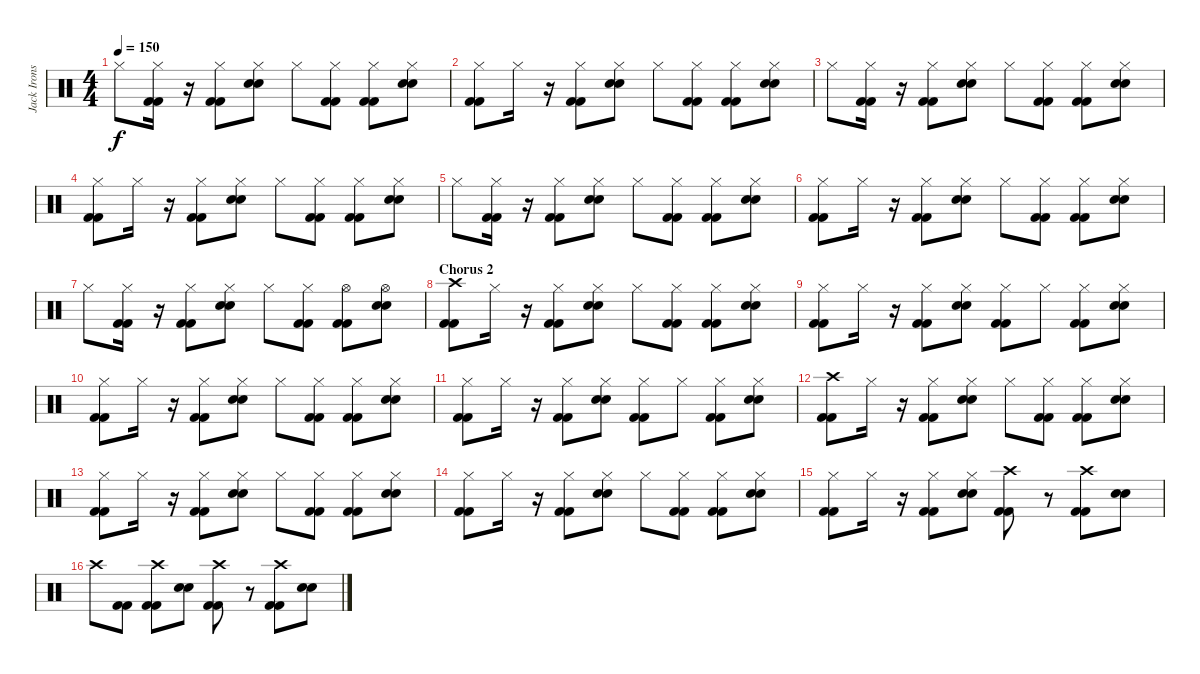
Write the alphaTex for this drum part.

\track ("Jack Irons" "Jack Irons") {instrument percussion}
\staff {score}
\articulation defaults
\ts (4 4)
\tempo 150
\clef neutral
\ks c "Hi-Hat (closed)".8{dy f}
("Hi-Hat (closed)" "Kick (hit) 2" "Kick (hit) 2").16 r.16 ("Hi-Hat (closed)" "Kick (hit) 2" "Kick (hit) 2").8 ("Hi-Hat (closed)" "Electric Snare (hit)" "Electric Snare (hit)").8 "Hi-Hat (closed)".8 ("Hi-Hat (closed)" "Kick (hit) 2" "Kick (hit) 2").8 ("Hi-Hat (closed)" "Kick (hit) 2" "Kick (hit) 2").8 ("Hi-Hat (closed)" "Electric Snare (hit)" "Electric Snare (hit)").8 |
("Hi-Hat (closed)" "Kick (hit) 2" "Kick (hit) 2").8 "Hi-Hat (closed)".16 r.16 ("Hi-Hat (closed)" "Kick (hit) 2" "Kick (hit) 2").8 ("Hi-Hat (closed)" "Electric Snare (hit)" "Electric Snare (hit)").8 "Hi-Hat (closed)".8 ("Hi-Hat (closed)" "Kick (hit) 2" "Kick (hit) 2").8 ("Hi-Hat (closed)" "Kick (hit) 2" "Kick (hit) 2").8 ("Hi-Hat (closed)" "Electric Snare (hit)" "Electric Snare (hit)").8 |
"Hi-Hat (closed)".8 ("Hi-Hat (closed)" "Kick (hit) 2" "Kick (hit) 2").16 r.16 ("Hi-Hat (closed)" "Kick (hit) 2" "Kick (hit) 2").8 ("Hi-Hat (closed)" "Electric Snare (hit)" "Electric Snare (hit)").8 "Hi-Hat (closed)".8 ("Hi-Hat (closed)" "Kick (hit) 2" "Kick (hit) 2").8 ("Hi-Hat (closed)" "Kick (hit) 2" "Kick (hit) 2").8 ("Hi-Hat (closed)" "Electric Snare (hit)" "Electric Snare (hit)").8 |
("Hi-Hat (closed)" "Kick (hit) 2" "Kick (hit) 2").8 "Hi-Hat (closed)".16 r.16 ("Hi-Hat (closed)" "Kick (hit) 2" "Kick (hit) 2").8 ("Hi-Hat (closed)" "Electric Snare (hit)" "Electric Snare (hit)").8 "Hi-Hat (closed)".8 ("Hi-Hat (closed)" "Kick (hit) 2" "Kick (hit) 2").8 ("Hi-Hat (closed)" "Kick (hit) 2" "Kick (hit) 2").8 ("Hi-Hat (closed)" "Electric Snare (hit)" "Electric Snare (hit)").8 |
"Hi-Hat (closed)".8 ("Hi-Hat (closed)" "Kick (hit) 2" "Kick (hit) 2").16 r.16 ("Hi-Hat (closed)" "Kick (hit) 2" "Kick (hit) 2").8 ("Hi-Hat (closed)" "Electric Snare (hit)" "Electric Snare (hit)").8 "Hi-Hat (closed)".8 ("Hi-Hat (closed)" "Kick (hit) 2" "Kick (hit) 2").8 ("Hi-Hat (closed)" "Kick (hit) 2" "Kick (hit) 2").8 ("Hi-Hat (closed)" "Electric Snare (hit)" "Electric Snare (hit)").8 |
("Hi-Hat (closed)" "Kick (hit) 2" "Kick (hit) 2").8 "Hi-Hat (closed)".16 r.16 ("Hi-Hat (closed)" "Kick (hit) 2" "Kick (hit) 2").8 ("Hi-Hat (closed)" "Electric Snare (hit)" "Electric Snare (hit)").8 "Hi-Hat (closed)".8 ("Hi-Hat (closed)" "Kick (hit) 2" "Kick (hit) 2").8 ("Hi-Hat (closed)" "Kick (hit) 2" "Kick (hit) 2").8 ("Hi-Hat (closed)" "Electric Snare (hit)" "Electric Snare (hit)").8 |
"Hi-Hat (closed)".8 ("Hi-Hat (closed)" "Kick (hit) 2" "Kick (hit) 2").16 r.16 ("Hi-Hat (closed)" "Kick (hit) 2" "Kick (hit) 2").8 ("Hi-Hat (closed)" "Electric Snare (hit)" "Electric Snare (hit)").8 "Hi-Hat (closed)".8 ("Hi-Hat (closed)" "Kick (hit) 2" "Kick (hit) 2").8 ("Hi-Hat (open)" "Kick (hit) 2" "Kick (hit) 2").8 ("Hi-Hat (open)" "Electric Snare (hit)" "Electric Snare (hit)").8 |
\section ("" "Chorus 2")
("Crash high (hit)" "Kick (hit) 2" "Kick (hit) 2").8 "Hi-Hat (closed)".16 r.16 ("Hi-Hat (closed)" "Kick (hit) 2" "Kick (hit) 2").8 ("Hi-Hat (closed)" "Electric Snare (hit)" "Electric Snare (hit)").8 "Hi-Hat (closed)".8 ("Hi-Hat (closed)" "Kick (hit) 2" "Kick (hit) 2").8 ("Hi-Hat (closed)" "Kick (hit) 2" "Kick (hit) 2").8 ("Hi-Hat (closed)" "Electric Snare (hit)" "Electric Snare (hit)").8 |
("Hi-Hat (closed)" "Kick (hit) 2" "Kick (hit) 2").8 "Hi-Hat (closed)".16 r.16 ("Hi-Hat (closed)" "Kick (hit) 2" "Kick (hit) 2").8 ("Hi-Hat (closed)" "Electric Snare (hit)" "Electric Snare (hit)").8 ("Hi-Hat (closed)" "Kick (hit) 2" "Kick (hit) 2").8 "Hi-Hat (closed)".8 ("Hi-Hat (closed)" "Kick (hit) 2" "Kick (hit) 2").8 ("Hi-Hat (closed)" "Electric Snare (hit)" "Electric Snare (hit)").8 |
("Hi-Hat (closed)" "Kick (hit) 2" "Kick (hit) 2").8 "Hi-Hat (closed)".16 r.16 ("Hi-Hat (closed)" "Kick (hit) 2" "Kick (hit) 2").8 ("Hi-Hat (closed)" "Electric Snare (hit)" "Electric Snare (hit)").8 "Hi-Hat (closed)".8 ("Hi-Hat (closed)" "Kick (hit) 2" "Kick (hit) 2").8 ("Hi-Hat (closed)" "Kick (hit) 2" "Kick (hit) 2").8 ("Hi-Hat (closed)" "Electric Snare (hit)" "Electric Snare (hit)").8 |
("Hi-Hat (closed)" "Kick (hit) 2" "Kick (hit) 2").8 "Hi-Hat (closed)".16 r.16 ("Hi-Hat (closed)" "Kick (hit) 2" "Kick (hit) 2").8 ("Hi-Hat (closed)" "Electric Snare (hit)" "Electric Snare (hit)").8 ("Hi-Hat (closed)" "Kick (hit) 2" "Kick (hit) 2").8 "Hi-Hat (closed)".8 ("Hi-Hat (closed)" "Kick (hit) 2" "Kick (hit) 2").8 ("Hi-Hat (closed)" "Electric Snare (hit)" "Electric Snare (hit)").8 |
("Crash high (hit)" "Kick (hit) 2" "Kick (hit) 2").8 "Hi-Hat (closed)".16 r.16 ("Hi-Hat (closed)" "Kick (hit) 2" "Kick (hit) 2").8 ("Hi-Hat (closed)" "Electric Snare (hit)" "Electric Snare (hit)").8 "Hi-Hat (closed)".8 ("Hi-Hat (closed)" "Kick (hit) 2" "Kick (hit) 2").8 ("Hi-Hat (closed)" "Kick (hit) 2" "Kick (hit) 2").8 ("Hi-Hat (closed)" "Electric Snare (hit)" "Electric Snare (hit)").8 |
("Hi-Hat (closed)" "Kick (hit) 2" "Kick (hit) 2").8 "Hi-Hat (closed)".16 r.16 ("Hi-Hat (closed)" "Kick (hit) 2" "Kick (hit) 2").8 ("Hi-Hat (closed)" "Electric Snare (hit)" "Electric Snare (hit)").8 "Hi-Hat (closed)".8 ("Hi-Hat (closed)" "Kick (hit) 2" "Kick (hit) 2").8 ("Hi-Hat (closed)" "Kick (hit) 2" "Kick (hit) 2").8 ("Hi-Hat (closed)" "Electric Snare (hit)" "Electric Snare (hit)").8 |
("Hi-Hat (closed)" "Kick (hit) 2" "Kick (hit) 2").8 "Hi-Hat (closed)".16 r.16 ("Hi-Hat (closed)" "Kick (hit) 2" "Kick (hit) 2").8 ("Hi-Hat (closed)" "Electric Snare (hit)" "Electric Snare (hit)").8 "Hi-Hat (closed)".8 ("Hi-Hat (closed)" "Kick (hit) 2" "Kick (hit) 2").8 ("Hi-Hat (closed)" "Kick (hit) 2" "Kick (hit) 2").8 ("Hi-Hat (closed)" "Electric Snare (hit)" "Electric Snare (hit)").8 |
("Hi-Hat (closed)" "Kick (hit) 2" "Kick (hit) 2").8 "Hi-Hat (closed)".16 r.16 ("Hi-Hat (closed)" "Kick (hit) 2" "Kick (hit) 2").8 ("Hi-Hat (closed)" "Electric Snare (hit)" "Electric Snare (hit)").8 ("Crash high (hit)" "Kick (hit) 2" "Kick (hit) 2").8 r.8 ("Crash high (hit)" "Kick (hit) 2" "Kick (hit) 2").8 ("Electric Snare (hit)" "Electric Snare (hit)").8 |
"Crash high (hit)".8 ("Kick (hit) 2" "Kick (hit) 2").8 ("Crash high (hit)" "Kick (hit) 2" "Kick (hit) 2").8 ("Electric Snare (hit)" "Electric Snare (hit)").8 ("Crash high (hit)" "Kick (hit) 2" "Kick (hit) 2").8 r.8 ("Crash high (hit)" "Kick (hit) 2" "Kick (hit) 2").8 ("Electric Snare (hit)" "Electric Snare (hit)").8
